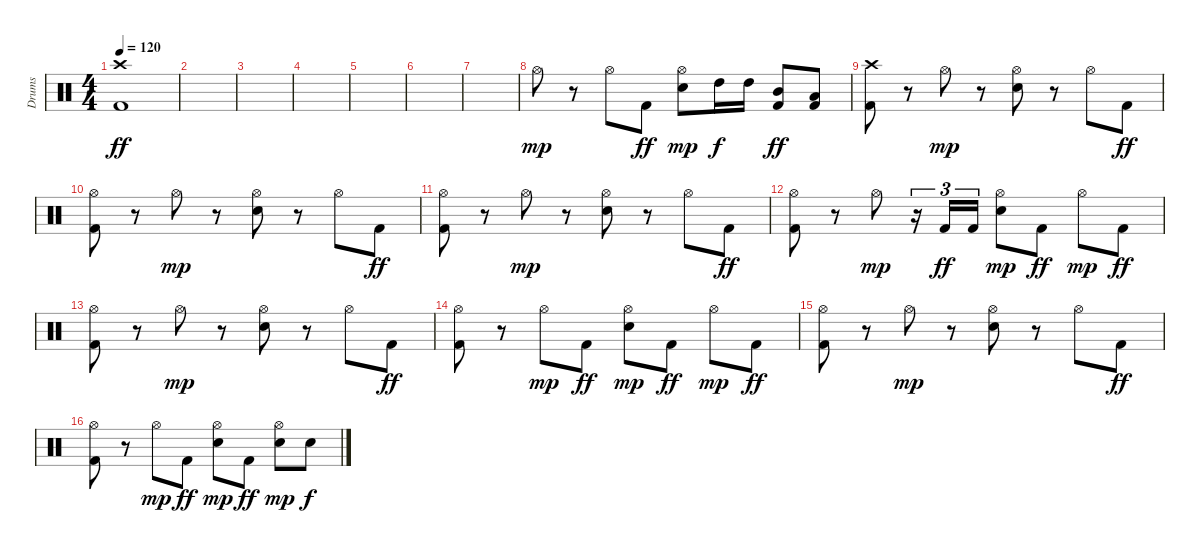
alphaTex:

\track ("Drums" "Drums") {instrument percussion}
\staff {score}
\articulation defaults
\ts (4 4)
\tempo 120
\clef neutral
\ks c
("Crash high (hit)" "Kick (hit) 2").1{dy ff} |
|
|
|
|
|
|
"Hi-Hat (open)".8{dy mp} r.8 "Hi-Hat (open)".8 "Kick (hit) 2".8{dy ff} ("Hi-Hat (open)" "Electric Snare (hit)").8{dy mp} "High Tom (hit)".16{dy f} "High Tom (hit)".16 ("Mid Tom (hit)" "Kick (hit) 2").8{dy ff} ("Low Tom (hit)" "Kick (hit) 2").8 |
\section ("" "")
("Crash high (hit)" "Kick (hit) 2").8 r.8 "Hi-Hat (open)".8{dy mp} r.8 ("Hi-Hat (open)" "Electric Snare (hit)").8 r.8 "Hi-Hat (open)".8 "Kick (hit) 2".8{dy ff} |
("Hi-Hat (open)" "Kick (hit) 2").8 r.8 "Hi-Hat (open)".8{dy mp} r.8 ("Hi-Hat (open)" "Electric Snare (hit)").8 r.8 "Hi-Hat (open)".8 "Kick (hit) 2".8{dy ff} |
("Hi-Hat (open)" "Kick (hit) 2").8 r.8 "Hi-Hat (open)".8{dy mp} r.8 ("Hi-Hat (open)" "Electric Snare (hit)").8 r.8 "Hi-Hat (open)".8 "Kick (hit) 2".8{dy ff} |
("Hi-Hat (open)" "Kick (hit) 2").8 r.8 "Hi-Hat (open)".8{dy mp} r.16{tu (3 2)} "Kick (hit) 2".16{tu (3 2) dy ff} "Kick (hit) 2".16{tu (3 2)} ("Hi-Hat (open)" "Electric Snare (hit)").8{dy mp} "Kick (hit) 2".8{dy ff} "Hi-Hat (open)".8{dy mp} "Kick (hit) 2".8{dy ff} |
("Hi-Hat (open)" "Kick (hit) 2").8 r.8 "Hi-Hat (open)".8{dy mp} r.8 ("Hi-Hat (open)" "Electric Snare (hit)").8 r.8 "Hi-Hat (open)".8 "Kick (hit) 2".8{dy ff} |
("Hi-Hat (open)" "Kick (hit) 2").8 r.8 "Hi-Hat (open)".8{dy mp} "Kick (hit) 2".8{dy ff} ("Hi-Hat (open)" "Electric Snare (hit)").8{dy mp} "Kick (hit) 2".8{dy ff} "Hi-Hat (open)".8{dy mp} "Kick (hit) 2".8{dy ff} |
("Hi-Hat (open)" "Kick (hit) 2").8 r.8 "Hi-Hat (open)".8{dy mp} r.8 ("Hi-Hat (open)" "Electric Snare (hit)").8 r.8 "Hi-Hat (open)".8 "Kick (hit) 2".8{dy ff} |
("Hi-Hat (open)" "Kick (hit) 2").8 r.8 "Hi-Hat (open)".8{dy mp} "Kick (hit) 2".8{dy ff} ("Hi-Hat (open)" "Electric Snare (hit)").8{dy mp} "Kick (hit) 2".8{dy ff} ("Hi-Hat (open)" "Electric Snare (hit)").8{dy mp} "Electric Snare (hit)".8{dy f}
